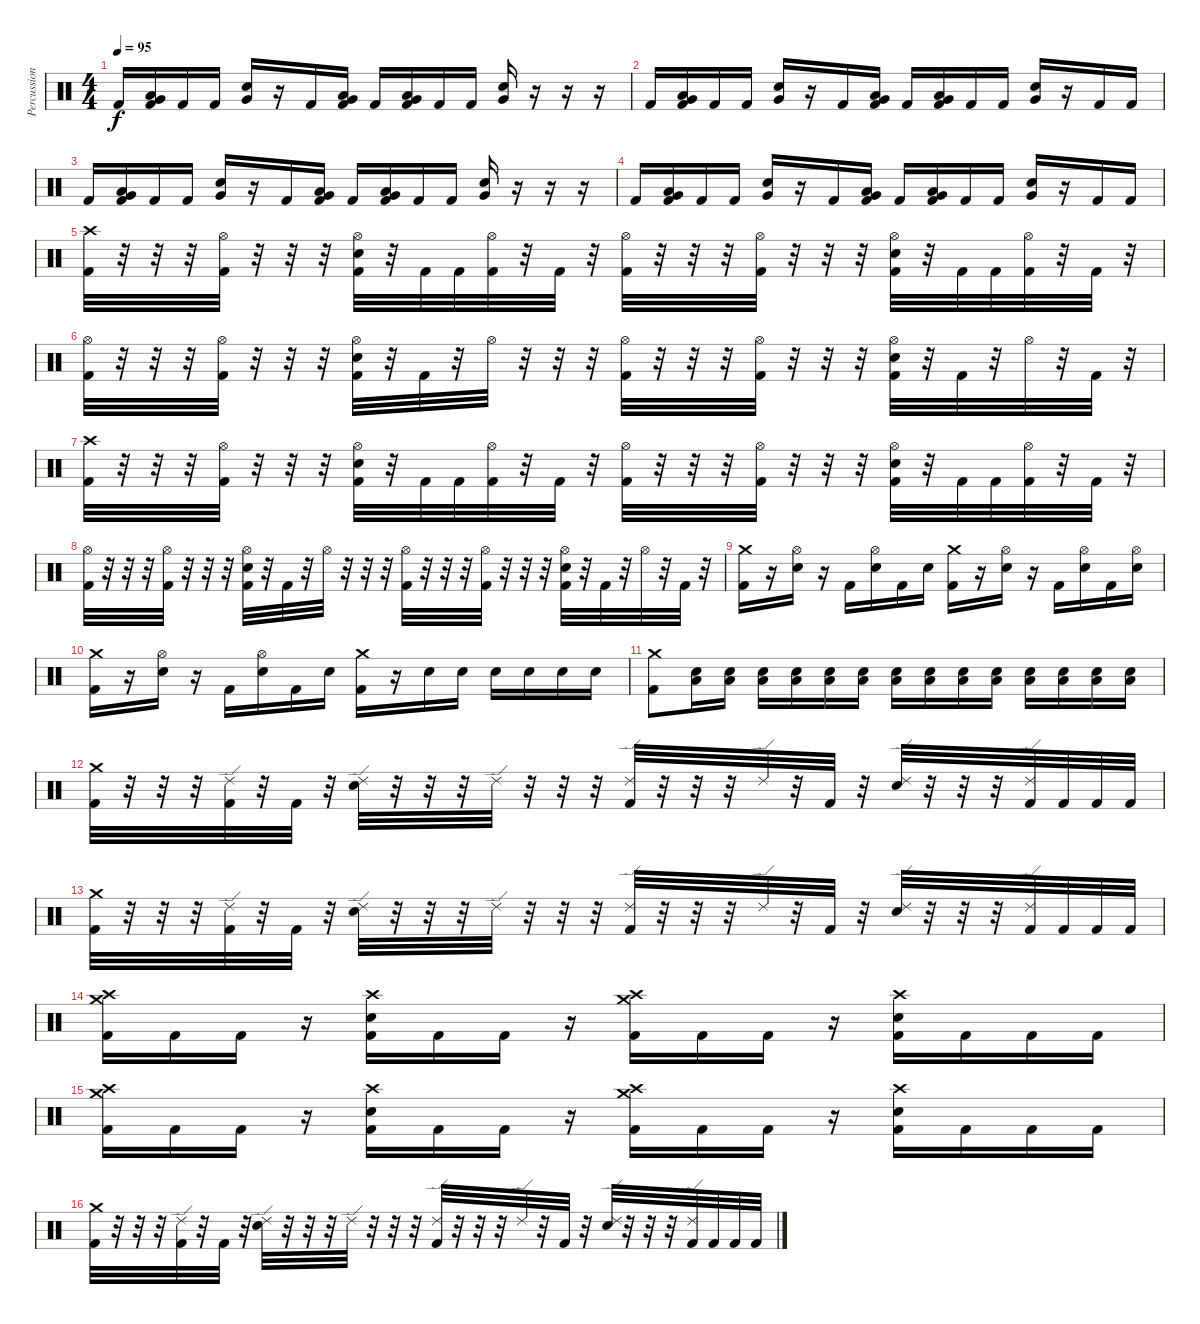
\track ("Percussion" "Percussion") {instrument percussion}
\staff {score}
\articulation defaults
\ts (4 4)
\tempo 95
\clef neutral
\ks c "Kick (hit) 2".16{dy f}
("Low Tom (hit)" "Very Low Tom (hit)" "Kick (hit) 2").16 "Kick (hit) 2".16 "Kick (hit) 2".16 ("Electric Snare (hit)" "Very Low Tom (hit)").16 r.16 "Kick (hit) 2".16 ("Low Tom (hit)" "Very Low Tom (hit)" "Kick (hit) 2").16 "Kick (hit) 2".16 ("Very Low Tom (hit)" "Low Floor Tom (hit)" "Kick (hit) 2").16 "Kick (hit) 2".16 "Kick (hit) 2".16 ("Electric Snare (hit)" "Very Low Tom (hit)").16 r.16 r.16 r.16 |
"Kick (hit) 2".16 ("Low Tom (hit)" "Very Low Tom (hit)" "Kick (hit) 2").16 "Kick (hit) 2".16 "Kick (hit) 2".16 ("Electric Snare (hit)" "Very Low Tom (hit)").16 r.16 "Kick (hit) 2".16 ("Low Tom (hit)" "Very Low Tom (hit)" "Kick (hit) 2").16 "Kick (hit) 2".16 ("Very Low Tom (hit)" "Low Floor Tom (hit)" "Kick (hit) 2").16 "Kick (hit) 2".16 "Kick (hit) 2".16 ("Electric Snare (hit)" "Very Low Tom (hit)").16 r.16 "Kick (hit) 2".16 "Kick (hit) 2".16 |
"Kick (hit) 2".16 ("Low Tom (hit)" "Very Low Tom (hit)" "Kick (hit) 2").16 "Kick (hit) 2".16 "Kick (hit) 2".16 ("Electric Snare (hit)" "Very Low Tom (hit)").16 r.16 "Kick (hit) 2".16 ("Low Tom (hit)" "Very Low Tom (hit)" "Kick (hit) 2").16 "Kick (hit) 2".16 ("Very Low Tom (hit)" "Low Floor Tom (hit)" "Kick (hit) 2").16 "Kick (hit) 2".16 "Kick (hit) 2".16 ("Electric Snare (hit)" "Very Low Tom (hit)").16 r.16 r.16 r.16 |
"Kick (hit) 2".16 ("Low Tom (hit)" "Very Low Tom (hit)" "Kick (hit) 2").16 "Kick (hit) 2".16 "Kick (hit) 2".16 ("Electric Snare (hit)" "Very Low Tom (hit)").16 r.16 "Kick (hit) 2".16 ("Low Tom (hit)" "Very Low Tom (hit)" "Kick (hit) 2").16 "Kick (hit) 2".16 ("Very Low Tom (hit)" "Low Floor Tom (hit)" "Kick (hit) 2").16 "Kick (hit) 2".16 "Kick (hit) 2".16 ("Electric Snare (hit)" "Very Low Tom (hit)").16 r.16 "Kick (hit) 2".16 "Kick (hit) 2".16 |
("Crash high (hit)" "Kick (hit) 2").32 r.32 r.32 r.32 ("Hi-Hat (open)" "Kick (hit) 2").32 r.32 r.32 r.32 ("Hi-Hat (open)" "Electric Snare (hit)" "Kick (hit) 2").32 r.32 "Kick (hit) 2".32 "Kick (hit) 2".32 ("Hi-Hat (open)" "Kick (hit) 2").32 r.32 "Kick (hit) 2".32 r.32 ("Hi-Hat (open)" "Kick (hit) 2").32 r.32 r.32 r.32 ("Hi-Hat (open)" "Kick (hit) 2").32 r.32 r.32 r.32 ("Hi-Hat (open)" "Electric Snare (hit)" "Kick (hit) 2").32 r.32 "Kick (hit) 2".32 "Kick (hit) 2".32 ("Hi-Hat (open)" "Kick (hit) 2").32 r.32 "Kick (hit) 2".32 r.32 |
("Hi-Hat (open)" "Kick (hit) 2").32 r.32 r.32 r.32 ("Hi-Hat (open)" "Kick (hit) 2").32 r.32 r.32 r.32 ("Hi-Hat (open)" "Electric Snare (hit)" "Kick (hit) 2").32 r.32 "Kick (hit) 2".32 r.32 "Hi-Hat (open)".32 r.32 r.32 r.32 ("Hi-Hat (open)" "Kick (hit) 2").32 r.32 r.32 r.32 ("Hi-Hat (open)" "Kick (hit) 2").32 r.32 r.32 r.32 ("Hi-Hat (open)" "Electric Snare (hit)" "Kick (hit) 2").32 r.32 "Kick (hit) 2".32 r.32 "Hi-Hat (open)".32 r.32 "Kick (hit) 2".32 r.32 |
("Crash high (hit)" "Kick (hit) 2").32 r.32 r.32 r.32 ("Hi-Hat (open)" "Kick (hit) 2").32 r.32 r.32 r.32 ("Hi-Hat (open)" "Electric Snare (hit)" "Kick (hit) 2").32 r.32 "Kick (hit) 2".32 "Kick (hit) 2".32 ("Hi-Hat (open)" "Kick (hit) 2").32 r.32 "Kick (hit) 2".32 r.32 ("Hi-Hat (open)" "Kick (hit) 2").32 r.32 r.32 r.32 ("Hi-Hat (open)" "Kick (hit) 2").32 r.32 r.32 r.32 ("Hi-Hat (open)" "Electric Snare (hit)" "Kick (hit) 2").32 r.32 "Kick (hit) 2".32 "Kick (hit) 2".32 ("Hi-Hat (open)" "Kick (hit) 2").32 r.32 "Kick (hit) 2".32 r.32 |
("Hi-Hat (open)" "Kick (hit) 2").32 r.32 r.32 r.32 ("Hi-Hat (open)" "Kick (hit) 2").32 r.32 r.32 r.32 ("Hi-Hat (open)" "Electric Snare (hit)" "Kick (hit) 2").32 r.32 "Kick (hit) 2".32 r.32 "Hi-Hat (open)".32 r.32 r.32 r.32 ("Hi-Hat (open)" "Kick (hit) 2").32 r.32 r.32 r.32 ("Hi-Hat (open)" "Kick (hit) 2").32 r.32 r.32 r.32 ("Hi-Hat (open)" "Electric Snare (hit)" "Kick (hit) 2").32 r.32 "Kick (hit) 2".32 r.32 "Hi-Hat (open)".32 r.32 "Kick (hit) 2".32 r.32 |
("Crash medium (hit)" "Kick (hit) 2").16 r.16 ("Hi-Hat (open)" "Electric Snare (hit)").16 r.16 "Kick (hit) 2".16 ("Hi-Hat (open)" "Electric Snare (hit)").16 "Kick (hit) 2".16 "Electric Snare (hit)".16 ("Crash medium (hit)" "Kick (hit) 2").16 r.16 ("Hi-Hat (open)" "Electric Snare (hit)").16 r.16 "Kick (hit) 2".16 ("Hi-Hat (open)" "Electric Snare (hit)").16 "Kick (hit) 2".16 ("Hi-Hat (open)" "Electric Snare (hit)").16 |
("Crash medium (hit)" "Kick (hit) 2").16 r.16 ("Hi-Hat (open)" "Electric Snare (hit)").16 r.16 "Kick (hit) 2".16 ("Hi-Hat (open)" "Electric Snare (hit)").16 "Kick (hit) 2".16 "Electric Snare (hit)".16 ("Crash medium (hit)" "Kick (hit) 2").16 r.16 "Electric Snare (hit)".16 "Electric Snare (hit)".16 "Electric Snare (hit)".16 "Electric Snare (hit)".16 "Electric Snare (hit)".16 "Electric Snare (hit)".16 |
("Crash medium (hit)" "Kick (hit) 2").8 ("Low Floor Tom (hit)" "Electric Snare (hit)").16 ("Low Floor Tom (hit)" "Electric Snare (hit)").16 ("Low Floor Tom (hit)" "Electric Snare (hit)").16 ("Low Floor Tom (hit)" "Electric Snare (hit)").16 ("Low Floor Tom (hit)" "Electric Snare (hit)").16 ("Low Floor Tom (hit)" "Electric Snare (hit)").16 ("Low Floor Tom (hit)" "Electric Snare (hit)").16 ("Low Floor Tom (hit)" "Electric Snare (hit)").16 ("Low Floor Tom (hit)" "Electric Snare (hit)").16 ("Low Floor Tom (hit)" "Electric Snare (hit)").16 ("Low Floor Tom (hit)" "Electric Snare (hit)").16 ("Low Floor Tom (hit)" "Electric Snare (hit)").16 ("Low Floor Tom (hit)" "Electric Snare (hit)").16 ("Low Floor Tom (hit)" "Electric Snare (hit)").16 |
("Crash medium (hit)" "Kick (hit) 2").32 r.32 r.32 r.32 ("Ride (edge) 2" "Kick (hit) 2").32 r.32 "Kick (hit) 2".32 r.32 ("Ride (edge) 2" "Electric Snare (hit)").32 r.32 r.32 r.32 "Ride (edge) 2".32 r.32 r.32 r.32 ("Ride (edge) 2" "Kick (hit) 2").32 r.32 r.32 r.32 "Ride (edge) 2".32 r.32 "Kick (hit) 2".32 r.32 ("Ride (edge) 2" "Electric Snare (hit)").32 r.32 r.32 r.32 ("Ride (edge) 2" "Kick (hit) 2").32 "Kick (hit) 2".32 "Kick (hit) 2".32 "Kick (hit) 2".32 |
("Crash medium (hit)" "Kick (hit) 2").32 r.32 r.32 r.32 ("Ride (edge) 2" "Kick (hit) 2").32 r.32 "Kick (hit) 2".32 r.32 ("Ride (edge) 2" "Electric Snare (hit)").32 r.32 r.32 r.32 "Ride (edge) 2".32 r.32 r.32 r.32 ("Ride (edge) 2" "Kick (hit) 2").32 r.32 r.32 r.32 "Ride (edge) 2".32 r.32 "Kick (hit) 2".32 r.32 ("Ride (edge) 2" "Electric Snare (hit)").32 r.32 r.32 r.32 ("Ride (edge) 2" "Kick (hit) 2").32 "Kick (hit) 2".32 "Kick (hit) 2".32 "Kick (hit) 2".32 |
("Crash medium (hit)" "Crash high (hit)" "Kick (hit) 2").16 "Kick (hit) 2".16 "Kick (hit) 2".16 r.16 ("Crash high (hit)" "Electric Snare (hit)" "Kick (hit) 2").16 "Kick (hit) 2".16 "Kick (hit) 2".16 r.16 ("Crash medium (hit)" "Crash high (hit)" "Kick (hit) 2").16 "Kick (hit) 2".16 "Kick (hit) 2".16 r.16 ("Crash high (hit)" "Electric Snare (hit)" "Kick (hit) 2").16 "Kick (hit) 2".16 "Kick (hit) 2".16 "Kick (hit) 2".16 |
("Crash medium (hit)" "Crash high (hit)" "Kick (hit) 2").16 "Kick (hit) 2".16 "Kick (hit) 2".16 r.16 ("Crash high (hit)" "Electric Snare (hit)" "Kick (hit) 2").16 "Kick (hit) 2".16 "Kick (hit) 2".16 r.16 ("Crash medium (hit)" "Crash high (hit)" "Kick (hit) 2").16 "Kick (hit) 2".16 "Kick (hit) 2".16 r.16 ("Crash high (hit)" "Electric Snare (hit)" "Kick (hit) 2").16 "Kick (hit) 2".16 "Kick (hit) 2".16 "Kick (hit) 2".16 |
("Crash medium (hit)" "Kick (hit) 2").32 r.32 r.32 r.32 ("Ride (edge) 2" "Kick (hit) 2").32 r.32 "Kick (hit) 2".32 r.32 ("Ride (edge) 2" "Electric Snare (hit)").32 r.32 r.32 r.32 "Ride (edge) 2".32 r.32 r.32 r.32 ("Ride (edge) 2" "Kick (hit) 2").32 r.32 r.32 r.32 "Ride (edge) 2".32 r.32 "Kick (hit) 2".32 r.32 ("Ride (edge) 2" "Electric Snare (hit)").32 r.32 r.32 r.32 ("Ride (edge) 2" "Kick (hit) 2").32 "Kick (hit) 2".32 "Kick (hit) 2".32 "Kick (hit) 2".32
